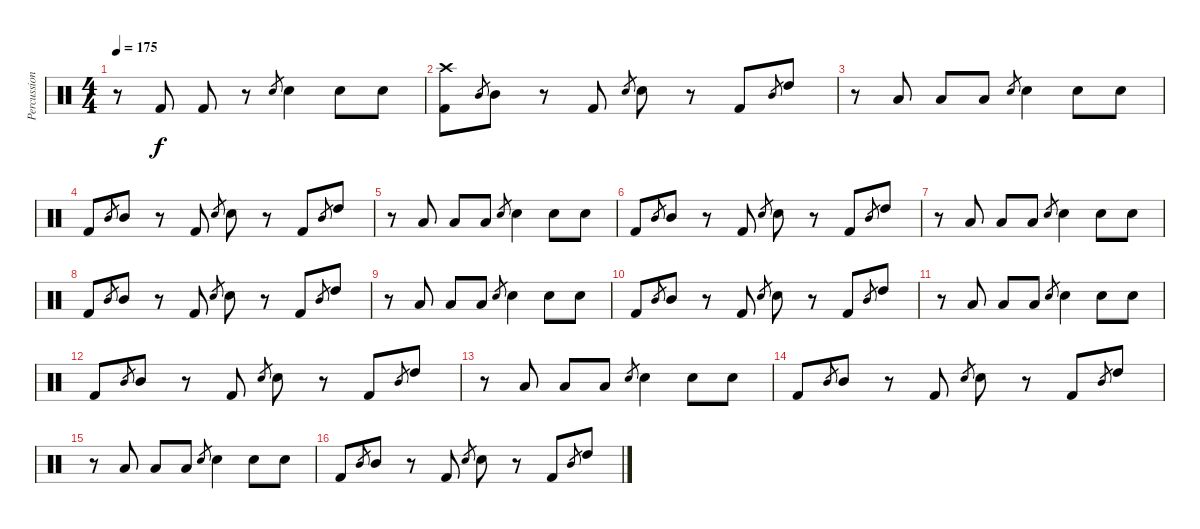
\track ("Percussion" "Percussion") {instrument percussion}
\staff {score}
\articulation defaults
\ts (4 4)
\tempo 175
\clef neutral
\ks c
r.8{dy f} "Kick (hit) 2".8 "Kick (hit) 2".8 r.8 "Electric Snare (hit)".8{gr} "Electric Snare (hit)".4 "Electric Snare (hit)".8 "Electric Snare (hit)".8 |
("Crash high (hit)" "Kick (hit) 2").8 "Mid Tom (hit)".8{gr} "Mid Tom (hit)".8 r.8 "Kick (hit) 2".8 "Electric Snare (hit)".8{gr} "Electric Snare (hit)".8 r.8 "Kick (hit) 2".8 "Mid Tom (hit)".8{gr} "High Tom (hit)".8 |
r.8 "Low Tom (hit)".8 "Low Tom (hit)".8 "Low Tom (hit)".8 "Electric Snare (hit)".8{gr} "Electric Snare (hit)".4 "Electric Snare (hit)".8 "Electric Snare (hit)".8 |
"Kick (hit) 2".8 "Mid Tom (hit)".8{gr} "Mid Tom (hit)".8 r.8 "Kick (hit) 2".8 "Electric Snare (hit)".8{gr} "Electric Snare (hit)".8 r.8 "Kick (hit) 2".8 "Mid Tom (hit)".8{gr} "High Tom (hit)".8 |
r.8 "Low Tom (hit)".8 "Low Tom (hit)".8 "Low Tom (hit)".8 "Electric Snare (hit)".8{gr} "Electric Snare (hit)".4 "Electric Snare (hit)".8 "Electric Snare (hit)".8 |
"Kick (hit) 2".8 "Mid Tom (hit)".8{gr} "Mid Tom (hit)".8 r.8 "Kick (hit) 2".8 "Electric Snare (hit)".8{gr} "Electric Snare (hit)".8 r.8 "Kick (hit) 2".8 "Mid Tom (hit)".8{gr} "High Tom (hit)".8 |
r.8 "Low Tom (hit)".8 "Low Tom (hit)".8 "Low Tom (hit)".8 "Electric Snare (hit)".8{gr} "Electric Snare (hit)".4 "Electric Snare (hit)".8 "Electric Snare (hit)".8 |
"Kick (hit) 2".8 "Mid Tom (hit)".8{gr} "Mid Tom (hit)".8 r.8 "Kick (hit) 2".8 "Electric Snare (hit)".8{gr} "Electric Snare (hit)".8 r.8 "Kick (hit) 2".8 "Mid Tom (hit)".8{gr} "High Tom (hit)".8 |
r.8 "Low Tom (hit)".8 "Low Tom (hit)".8 "Low Tom (hit)".8 "Electric Snare (hit)".8{gr} "Electric Snare (hit)".4 "Electric Snare (hit)".8 "Electric Snare (hit)".8 |
"Kick (hit) 2".8 "Mid Tom (hit)".8{gr} "Mid Tom (hit)".8 r.8 "Kick (hit) 2".8 "Electric Snare (hit)".8{gr} "Electric Snare (hit)".8 r.8 "Kick (hit) 2".8 "Mid Tom (hit)".8{gr} "High Tom (hit)".8 |
r.8 "Low Tom (hit)".8 "Low Tom (hit)".8 "Low Tom (hit)".8 "Electric Snare (hit)".8{gr} "Electric Snare (hit)".4 "Electric Snare (hit)".8 "Electric Snare (hit)".8 |
"Kick (hit) 2".8 "Mid Tom (hit)".8{gr} "Mid Tom (hit)".8 r.8 "Kick (hit) 2".8 "Electric Snare (hit)".8{gr} "Electric Snare (hit)".8 r.8 "Kick (hit) 2".8 "Mid Tom (hit)".8{gr} "High Tom (hit)".8 |
r.8 "Low Tom (hit)".8 "Low Tom (hit)".8 "Low Tom (hit)".8 "Electric Snare (hit)".8{gr} "Electric Snare (hit)".4 "Electric Snare (hit)".8 "Electric Snare (hit)".8 |
"Kick (hit) 2".8 "Mid Tom (hit)".8{gr} "Mid Tom (hit)".8 r.8 "Kick (hit) 2".8 "Electric Snare (hit)".8{gr} "Electric Snare (hit)".8 r.8 "Kick (hit) 2".8 "Mid Tom (hit)".8{gr} "High Tom (hit)".8 |
r.8 "Low Tom (hit)".8 "Low Tom (hit)".8 "Low Tom (hit)".8 "Electric Snare (hit)".8{gr} "Electric Snare (hit)".4 "Electric Snare (hit)".8 "Electric Snare (hit)".8 |
"Kick (hit) 2".8 "Mid Tom (hit)".8{gr} "Mid Tom (hit)".8 r.8 "Kick (hit) 2".8 "Electric Snare (hit)".8{gr} "Electric Snare (hit)".8 r.8 "Kick (hit) 2".8 "Mid Tom (hit)".8{gr} "High Tom (hit)".8
